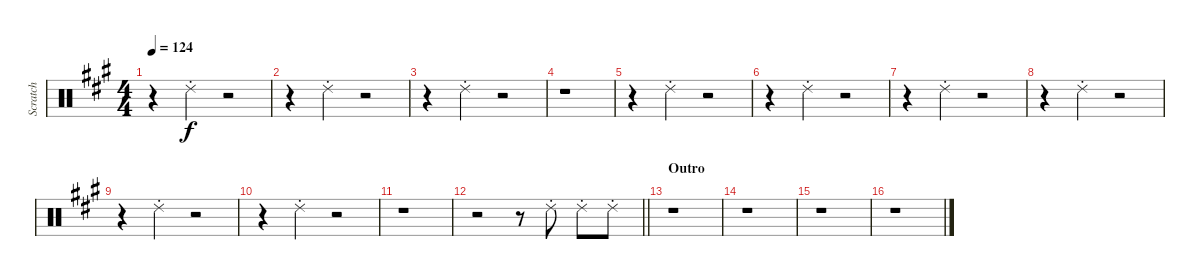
\track ("Scratch" "Scratch") {instrument percussion}
\staff {score}
\articulation defaults
\ts (4 4)
\tempo 124
\clef neutral
\ks a
r.4{dy f} "Ride (choke) 2".4 r.2 |
r.4 "Ride (choke) 2".4 r.2 |
r.4 "Ride (choke) 2".4 r.2 |
r.1 |
r.4 "Ride (choke) 2".4 r.2 |
r.4 "Ride (choke) 2".4 r.2 |
r.4 "Ride (choke) 2".4 r.2 |
r.4 "Ride (choke) 2".4 r.2 |
r.4 "Ride (choke) 2".4 r.2 |
r.4 "Ride (choke) 2".4 r.2 |
r.1 |
\barLineRight lightlight
r.2 r.8 "Ride (choke) 2".8 "Ride (choke) 2".8 "Ride (choke) 2".8 |
\section ("" "Outro")
r.1 |
r.1 |
r.1 |
r.1
